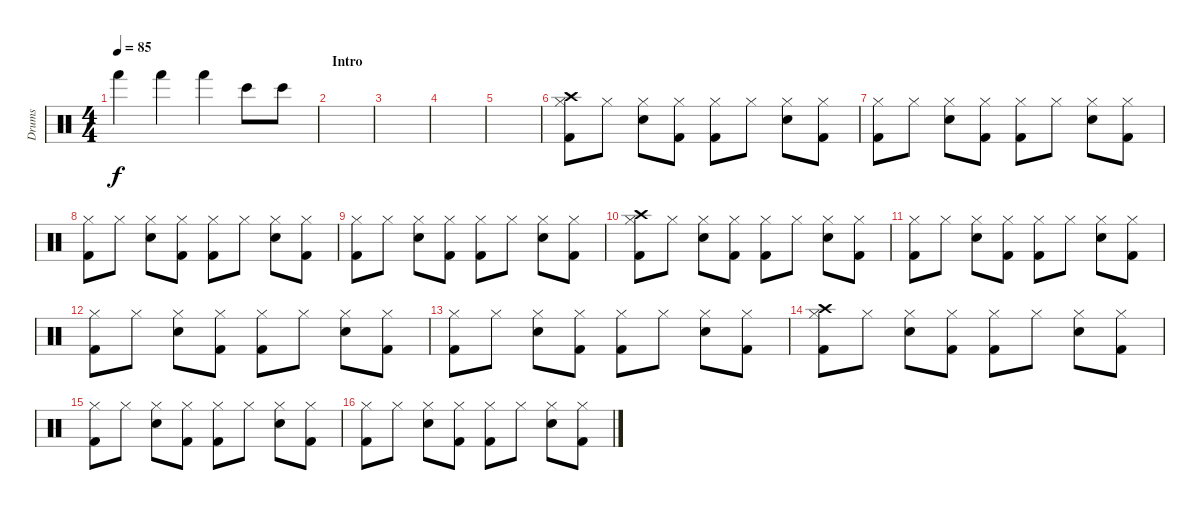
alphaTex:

\track ("Drums" "Drums") {instrument percussion}
\staff {score}
\articulation defaults
\ts (4 4)
\tempo 85
\clef neutral
\ks c "Hand (hit)".4{dy f} "Hand (hit)".4 "Hand (hit)".4 "Bongo High (hit)".8 "Bongo High (hit)".8
|
\section ("" "Intro")
|
|
|
|
("Hi-Hat (closed)" "Kick (hit) 2" "Crash high (hit)").8 "Hi-Hat (closed)".8 ("Hi-Hat (closed)" "Snare (hit) 2").8 ("Hi-Hat (closed)" "Kick (hit) 2").8 ("Hi-Hat (closed)" "Kick (hit) 2").8 "Hi-Hat (closed)".8 ("Hi-Hat (closed)" "Snare (hit) 2").8 ("Hi-Hat (closed)" "Kick (hit) 2").8 |
("Hi-Hat (closed)" "Kick (hit) 2").8 "Hi-Hat (closed)".8 ("Hi-Hat (closed)" "Snare (hit) 2").8 ("Hi-Hat (closed)" "Kick (hit) 2").8 ("Hi-Hat (closed)" "Kick (hit) 2").8 "Hi-Hat (closed)".8 ("Hi-Hat (closed)" "Snare (hit) 2").8 ("Hi-Hat (closed)" "Kick (hit) 2").8 |
("Hi-Hat (closed)" "Kick (hit) 2").8 "Hi-Hat (closed)".8 ("Hi-Hat (closed)" "Snare (hit) 2").8 ("Hi-Hat (closed)" "Kick (hit) 2").8 ("Hi-Hat (closed)" "Kick (hit) 2").8 "Hi-Hat (closed)".8 ("Hi-Hat (closed)" "Snare (hit) 2").8 ("Hi-Hat (closed)" "Kick (hit) 2").8 |
("Hi-Hat (closed)" "Kick (hit) 2").8 "Hi-Hat (closed)".8 ("Hi-Hat (closed)" "Snare (hit) 2").8 ("Hi-Hat (closed)" "Kick (hit) 2").8 ("Hi-Hat (closed)" "Kick (hit) 2").8 "Hi-Hat (closed)".8 ("Hi-Hat (closed)" "Snare (hit) 2").8 ("Hi-Hat (closed)" "Kick (hit) 2").8 |
("Hi-Hat (closed)" "Kick (hit) 2" "Crash high (hit)").8 "Hi-Hat (closed)".8 ("Hi-Hat (closed)" "Snare (hit) 2").8 ("Hi-Hat (closed)" "Kick (hit) 2").8 ("Hi-Hat (closed)" "Kick (hit) 2").8 "Hi-Hat (closed)".8 ("Hi-Hat (closed)" "Snare (hit) 2").8 ("Hi-Hat (closed)" "Kick (hit) 2").8 |
("Hi-Hat (closed)" "Kick (hit) 2").8 "Hi-Hat (closed)".8 ("Hi-Hat (closed)" "Snare (hit) 2").8 ("Hi-Hat (closed)" "Kick (hit) 2").8 ("Hi-Hat (closed)" "Kick (hit) 2").8 "Hi-Hat (closed)".8 ("Hi-Hat (closed)" "Snare (hit) 2").8 ("Hi-Hat (closed)" "Kick (hit) 2").8 |
("Hi-Hat (closed)" "Kick (hit) 2").8 "Hi-Hat (closed)".8 ("Hi-Hat (closed)" "Snare (hit) 2").8 ("Hi-Hat (closed)" "Kick (hit) 2").8 ("Hi-Hat (closed)" "Kick (hit) 2").8 "Hi-Hat (closed)".8 ("Hi-Hat (closed)" "Snare (hit) 2").8 ("Hi-Hat (closed)" "Kick (hit) 2").8 |
("Hi-Hat (closed)" "Kick (hit) 2").8 "Hi-Hat (closed)".8 ("Hi-Hat (closed)" "Snare (hit) 2").8 ("Hi-Hat (closed)" "Kick (hit) 2").8 ("Hi-Hat (closed)" "Kick (hit) 2").8 "Hi-Hat (closed)".8 ("Hi-Hat (closed)" "Snare (hit) 2").8 ("Hi-Hat (closed)" "Kick (hit) 2").8 |
("Hi-Hat (closed)" "Kick (hit) 2" "Crash high (hit)").8 "Hi-Hat (closed)".8 ("Hi-Hat (closed)" "Snare (hit) 2").8 ("Hi-Hat (closed)" "Kick (hit) 2").8 ("Hi-Hat (closed)" "Kick (hit) 2").8 "Hi-Hat (closed)".8 ("Hi-Hat (closed)" "Snare (hit) 2").8 ("Hi-Hat (closed)" "Kick (hit) 2").8 |
("Hi-Hat (closed)" "Kick (hit) 2").8 "Hi-Hat (closed)".8 ("Hi-Hat (closed)" "Snare (hit) 2").8 ("Hi-Hat (closed)" "Kick (hit) 2").8 ("Hi-Hat (closed)" "Kick (hit) 2").8 "Hi-Hat (closed)".8 ("Hi-Hat (closed)" "Snare (hit) 2").8 ("Hi-Hat (closed)" "Kick (hit) 2").8 |
("Hi-Hat (closed)" "Kick (hit) 2").8 "Hi-Hat (closed)".8 ("Hi-Hat (closed)" "Snare (hit) 2").8 ("Hi-Hat (closed)" "Kick (hit) 2").8 ("Hi-Hat (closed)" "Kick (hit) 2").8 "Hi-Hat (closed)".8 ("Hi-Hat (closed)" "Snare (hit) 2").8 ("Hi-Hat (closed)" "Kick (hit) 2").8
